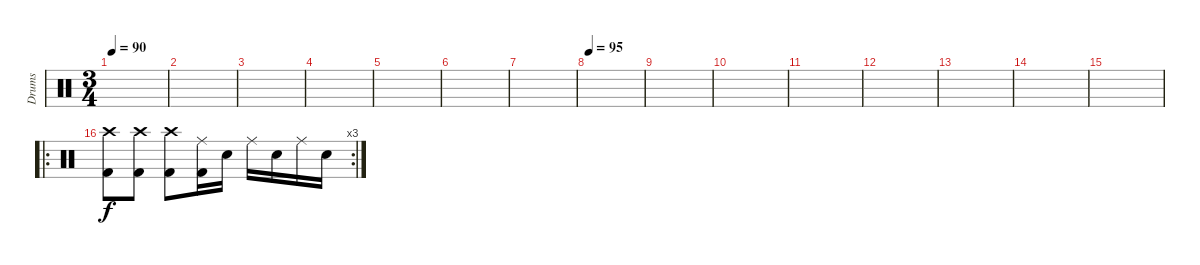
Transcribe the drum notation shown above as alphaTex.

\track ("Drums" "Drums") {instrument percussion}
\staff {score}
\articulation defaults
\ts (3 4)
\tempo 90
\clef neutral
\ks c
|
|
|
|
|
|
|
\tempo 95
|
|
|
|
|
|
|
|
\ro
\rc 3
("Crash high (hit)" "Kick (hit) 2").8 ("Crash high (hit)" "Kick (hit) 2").8 ("Crash high (hit)" "Kick (hit) 2").8 ("Ride (middle)" "Kick (hit) 2").16 "Snare (hit) 2".16 "Ride (middle)".16 "Snare (hit) 2".16 "Ride (middle)".16 "Snare (hit) 2".16
